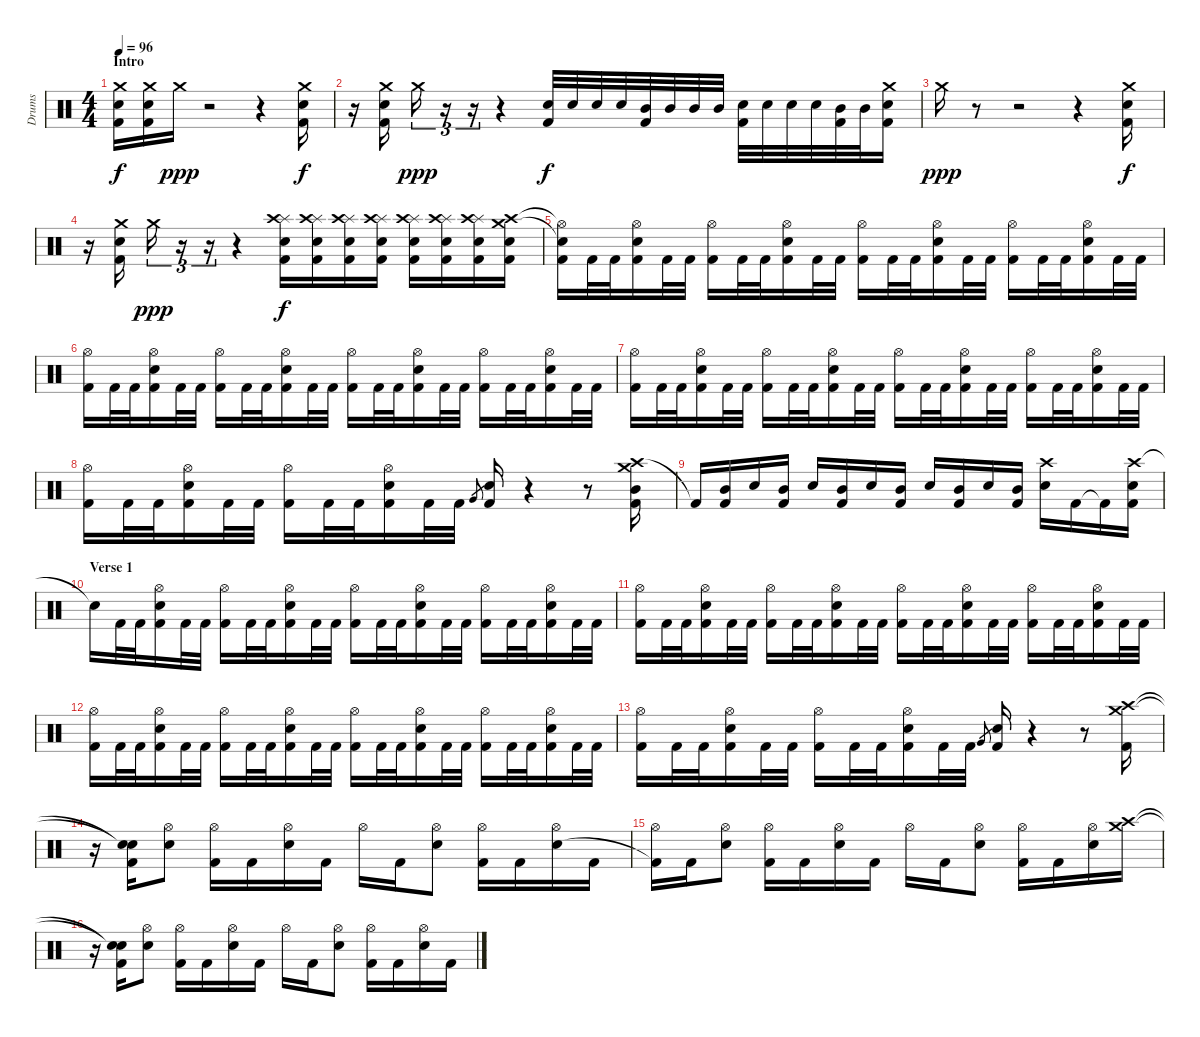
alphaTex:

\track ("Drums" "Drums") {instrument percussion}
\staff {score}
\articulation defaults
\ts (4 4)
\section ("" "Intro")
\tempo 96
\clef neutral
\ks c
("Crash medium (hit)" "Electric Snare (hit)" "Kick (hit) 2").16{dy f} ("Crash medium (hit)" "Electric Snare (hit)" "Kick (hit) 2").16 "Crash medium (hit)".16{dy ppp} r.2 r.4 ("Crash medium (hit)" "Electric Snare (hit)" "Kick (hit) 2").16{dy f} |
r.16 ("Crash medium (hit)" "Electric Snare (hit)" "Kick (hit) 2").16 "Crash medium (hit)".16{tu (3 2) dy ppp} r.16{tu (3 2)} r.16{tu (3 2)} r.4 ("Electric Snare (hit)" "Kick (hit) 2").32{dy f} "Electric Snare (hit)".32 "Electric Snare (hit)".32 "Electric Snare (hit)".32 ("Mid Tom (hit)" "Kick (hit) 2").32 "Mid Tom (hit)".32 "Mid Tom (hit)".32 "Mid Tom (hit)".32 ("Electric Snare (hit)" "Kick (hit) 2").32 "Electric Snare (hit)".32 "Electric Snare (hit)".32 "Electric Snare (hit)".32 ("Mid Tom (hit)" "Kick (hit) 2").32 "Mid Tom (hit)".32 ("Crash medium (hit)" "Electric Snare (hit)" "Kick (hit) 2").16 |
"Crash medium (hit)".16{dy ppp} r.8 r.2 r.4 ("Crash medium (hit)" "Electric Snare (hit)" "Kick (hit) 2").16{dy f} |
r.16 ("Crash medium (hit)" "Electric Snare (hit)" "Kick (hit) 2").16 "Crash medium (hit)".16{tu (3 2) dy ppp} r.16{tu (3 2)} r.16{tu (3 2)} r.4 ("Splash (hit)" "Crash high (hit)" "Electric Snare (hit)" "Kick (hit) 2").16{dy f} ("Splash (hit)" "Crash high (hit)" "Electric Snare (hit)" "Kick (hit) 2").16 ("Splash (hit)" "Crash high (hit)" "Electric Snare (hit)" "Kick (hit) 2").16 ("Splash (hit)" "Crash high (hit)" "Electric Snare (hit)" "Kick (hit) 2").16 ("Splash (hit)" "Crash high (hit)" "Electric Snare (hit)" "Kick (hit) 2").16 ("Splash (hit)" "Crash high (hit)" "Electric Snare (hit)" "Kick (hit) 2").16 ("Splash (hit)" "Crash high (hit)" "Electric Snare (hit)" "Kick (hit) 2").16 ("Crash high (hit)" "Crash medium (hit)" "Electric Snare (hit)" "Kick (hit) 2").16 |
("Hi-Hat (open)"{t} "Snare (hit)"{t} "Kick (hit) 2").16 "Kick (hit) 2".32 "Kick (hit) 2".32 ("Hi-Hat (open)" "Electric Snare (hit)" "Kick (hit) 2").16 "Kick (hit) 2".32 "Kick (hit) 2".32 ("Hi-Hat (open)" "Kick (hit) 2").16 "Kick (hit) 2".32 "Kick (hit) 2".32 ("Hi-Hat (open)" "Electric Snare (hit)" "Kick (hit) 2").16 "Kick (hit) 2".32 "Kick (hit) 2".32 ("Hi-Hat (open)" "Kick (hit) 2").16 "Kick (hit) 2".32 "Kick (hit) 2".32 ("Hi-Hat (open)" "Electric Snare (hit)" "Kick (hit) 2").16 "Kick (hit) 2".32 "Kick (hit) 2".32 ("Hi-Hat (open)" "Kick (hit) 2").16 "Kick (hit) 2".32 "Kick (hit) 2".32 ("Hi-Hat (open)" "Electric Snare (hit)" "Kick (hit) 2").16 "Kick (hit) 2".32 "Kick (hit) 2".32 |
("Hi-Hat (open)" "Kick (hit) 2").16 "Kick (hit) 2".32 "Kick (hit) 2".32 ("Hi-Hat (open)" "Electric Snare (hit)" "Kick (hit) 2").16 "Kick (hit) 2".32 "Kick (hit) 2".32 ("Hi-Hat (open)" "Kick (hit) 2").16 "Kick (hit) 2".32 "Kick (hit) 2".32 ("Hi-Hat (open)" "Electric Snare (hit)" "Kick (hit) 2").16 "Kick (hit) 2".32 "Kick (hit) 2".32 ("Hi-Hat (open)" "Kick (hit) 2").16 "Kick (hit) 2".32 "Kick (hit) 2".32 ("Hi-Hat (open)" "Electric Snare (hit)" "Kick (hit) 2").16 "Kick (hit) 2".32 "Kick (hit) 2".32 ("Hi-Hat (open)" "Kick (hit) 2").16 "Kick (hit) 2".32 "Kick (hit) 2".32 ("Hi-Hat (open)" "Electric Snare (hit)" "Kick (hit) 2").16 "Kick (hit) 2".32 "Kick (hit) 2".32 |
("Hi-Hat (open)" "Kick (hit) 2").16 "Kick (hit) 2".32 "Kick (hit) 2".32 ("Hi-Hat (open)" "Electric Snare (hit)" "Kick (hit) 2").16 "Kick (hit) 2".32 "Kick (hit) 2".32 ("Hi-Hat (open)" "Kick (hit) 2").16 "Kick (hit) 2".32 "Kick (hit) 2".32 ("Hi-Hat (open)" "Electric Snare (hit)" "Kick (hit) 2").16 "Kick (hit) 2".32 "Kick (hit) 2".32 ("Hi-Hat (open)" "Kick (hit) 2").16 "Kick (hit) 2".32 "Kick (hit) 2".32 ("Hi-Hat (open)" "Electric Snare (hit)" "Kick (hit) 2").16 "Kick (hit) 2".32 "Kick (hit) 2".32 ("Hi-Hat (open)" "Kick (hit) 2").16 "Kick (hit) 2".32 "Kick (hit) 2".32 ("Hi-Hat (open)" "Electric Snare (hit)" "Kick (hit) 2").16 "Kick (hit) 2".32 "Kick (hit) 2".32 |
("Hi-Hat (open)" "Kick (hit) 2").16 "Kick (hit) 2".32 "Kick (hit) 2".32 ("Hi-Hat (open)" "Electric Snare (hit)" "Kick (hit) 2").16 "Kick (hit) 2".32 "Kick (hit) 2".32 ("Hi-Hat (open)" "Kick (hit) 2").16 "Kick (hit) 2".32 "Kick (hit) 2".32 ("Hi-Hat (open)" "Electric Snare (hit)" "Kick (hit) 2").16 "Kick (hit) 2".32 "Kick (hit) 2".32 "Very Low Tom (hit)".8{gr} ("Electric Snare (hit)" "Kick (hit) 2").16 r.4 r.8 ("Crash high (hit)" "Crash medium (hit)" "Mid Tom (hit)" "Kick (hit) 2").16 |
"Kick (hit) 2"{t}.16 ("Mid Tom (hit)" "Kick (hit) 2").16 "Electric Snare (hit)".16 ("Mid Tom (hit)" "Kick (hit) 2").16 "Electric Snare (hit)".16 ("Mid Tom (hit)" "Kick (hit) 2").16 "Electric Snare (hit)".16 ("Mid Tom (hit)" "Kick (hit) 2").16 "Electric Snare (hit)".16 ("Mid Tom (hit)" "Kick (hit) 2").16 "Electric Snare (hit)".16 ("Mid Tom (hit)" "Kick (hit) 2").16 ("Crash high (hit)" "Electric Snare (hit)").16 "Kick (hit) 2".16 "Kick (hit) 2"{t}.16 ("Crash high (hit)" "Electric Snare (hit)" "Kick (hit) 2").16 |
\section ("" "Verse 1")
"Snare (hit)"{t}.16 "Kick (hit) 2".32 "Kick (hit) 2".32 ("Hi-Hat (open)" "Electric Snare (hit)" "Kick (hit) 2").16 "Kick (hit) 2".32 "Kick (hit) 2".32 ("Hi-Hat (open)" "Kick (hit) 2").16 "Kick (hit) 2".32 "Kick (hit) 2".32 ("Hi-Hat (open)" "Electric Snare (hit)" "Kick (hit) 2").16 "Kick (hit) 2".32 "Kick (hit) 2".32 ("Hi-Hat (open)" "Kick (hit) 2").16 "Kick (hit) 2".32 "Kick (hit) 2".32 ("Hi-Hat (open)" "Electric Snare (hit)" "Kick (hit) 2").16 "Kick (hit) 2".32 "Kick (hit) 2".32 ("Hi-Hat (open)" "Kick (hit) 2").16 "Kick (hit) 2".32 "Kick (hit) 2".32 ("Hi-Hat (open)" "Electric Snare (hit)" "Kick (hit) 2").16 "Kick (hit) 2".32 "Kick (hit) 2".32 |
("Hi-Hat (open)" "Kick (hit) 2").16 "Kick (hit) 2".32 "Kick (hit) 2".32 ("Hi-Hat (open)" "Electric Snare (hit)" "Kick (hit) 2").16 "Kick (hit) 2".32 "Kick (hit) 2".32 ("Hi-Hat (open)" "Kick (hit) 2").16 "Kick (hit) 2".32 "Kick (hit) 2".32 ("Hi-Hat (open)" "Electric Snare (hit)" "Kick (hit) 2").16 "Kick (hit) 2".32 "Kick (hit) 2".32 ("Hi-Hat (open)" "Kick (hit) 2").16 "Kick (hit) 2".32 "Kick (hit) 2".32 ("Hi-Hat (open)" "Electric Snare (hit)" "Kick (hit) 2").16 "Kick (hit) 2".32 "Kick (hit) 2".32 ("Hi-Hat (open)" "Kick (hit) 2").16 "Kick (hit) 2".32 "Kick (hit) 2".32 ("Hi-Hat (open)" "Electric Snare (hit)" "Kick (hit) 2").16 "Kick (hit) 2".32 "Kick (hit) 2".32 |
("Hi-Hat (open)" "Kick (hit) 2").16 "Kick (hit) 2".32 "Kick (hit) 2".32 ("Hi-Hat (open)" "Electric Snare (hit)" "Kick (hit) 2").16 "Kick (hit) 2".32 "Kick (hit) 2".32 ("Hi-Hat (open)" "Kick (hit) 2").16 "Kick (hit) 2".32 "Kick (hit) 2".32 ("Hi-Hat (open)" "Electric Snare (hit)" "Kick (hit) 2").16 "Kick (hit) 2".32 "Kick (hit) 2".32 ("Hi-Hat (open)" "Kick (hit) 2").16 "Kick (hit) 2".32 "Kick (hit) 2".32 ("Hi-Hat (open)" "Electric Snare (hit)" "Kick (hit) 2").16 "Kick (hit) 2".32 "Kick (hit) 2".32 ("Hi-Hat (open)" "Kick (hit) 2").16 "Kick (hit) 2".32 "Kick (hit) 2".32 ("Hi-Hat (open)" "Electric Snare (hit)" "Kick (hit) 2").16 "Kick (hit) 2".32 "Kick (hit) 2".32 |
("Hi-Hat (open)" "Kick (hit) 2").16 "Kick (hit) 2".32 "Kick (hit) 2".32 ("Hi-Hat (open)" "Electric Snare (hit)" "Kick (hit) 2").16 "Kick (hit) 2".32 "Kick (hit) 2".32 ("Hi-Hat (open)" "Kick (hit) 2").16 "Kick (hit) 2".32 "Kick (hit) 2".32 ("Hi-Hat (open)" "Electric Snare (hit)" "Kick (hit) 2").16 "Kick (hit) 2".32 "Kick (hit) 2".32 "Very Low Tom (hit)".8{gr} ("Electric Snare (hit)" "Kick (hit) 2").16 r.4 r.8 ("Crash high (hit)" "Crash medium (hit)" "Kick (hit) 2").16 |
r.16 ("Snare (hit)"{t} "Snare (hit)"{t} "Kick (hit) 2").16 ("Hi-Hat (open)" "Electric Snare (hit)").8 ("Hi-Hat (open)" "Kick (hit) 2").16 "Kick (hit) 2".16 ("Hi-Hat (open)" "Electric Snare (hit)").16 "Kick (hit) 2".16 "Hi-Hat (open)".16 "Kick (hit) 2".16 ("Hi-Hat (open)" "Electric Snare (hit)").8 ("Hi-Hat (open)" "Kick (hit) 2").16 "Kick (hit) 2".16 ("Hi-Hat (open)" "Electric Snare (hit)").16 "Kick (hit) 2".16 |
("Hi-Hat (open)" "Kick (hit) 2"{t}).16 "Kick (hit) 2".16 ("Hi-Hat (open)" "Electric Snare (hit)").8 ("Hi-Hat (open)" "Kick (hit) 2").16 "Kick (hit) 2".16 ("Hi-Hat (open)" "Electric Snare (hit)").16 "Kick (hit) 2".16 "Hi-Hat (open)".16 "Kick (hit) 2".16 ("Hi-Hat (open)" "Electric Snare (hit)").8 ("Hi-Hat (open)" "Kick (hit) 2").16 "Kick (hit) 2".16 ("Hi-Hat (open)" "Electric Snare (hit)").16 ("Crash high (hit)" "Crash medium (hit)").16 |
r.16 ("Snare (hit)"{t} "Snare (hit)"{t} "Kick (hit) 2").16 ("Hi-Hat (open)" "Electric Snare (hit)").8 ("Hi-Hat (open)" "Kick (hit) 2").16 "Kick (hit) 2".16 ("Hi-Hat (open)" "Electric Snare (hit)").16 "Kick (hit) 2".16 "Hi-Hat (open)".16 "Kick (hit) 2".16 ("Hi-Hat (open)" "Electric Snare (hit)").8 ("Hi-Hat (open)" "Kick (hit) 2").16 "Kick (hit) 2".16 ("Hi-Hat (open)" "Electric Snare (hit)").16 "Kick (hit) 2".16
